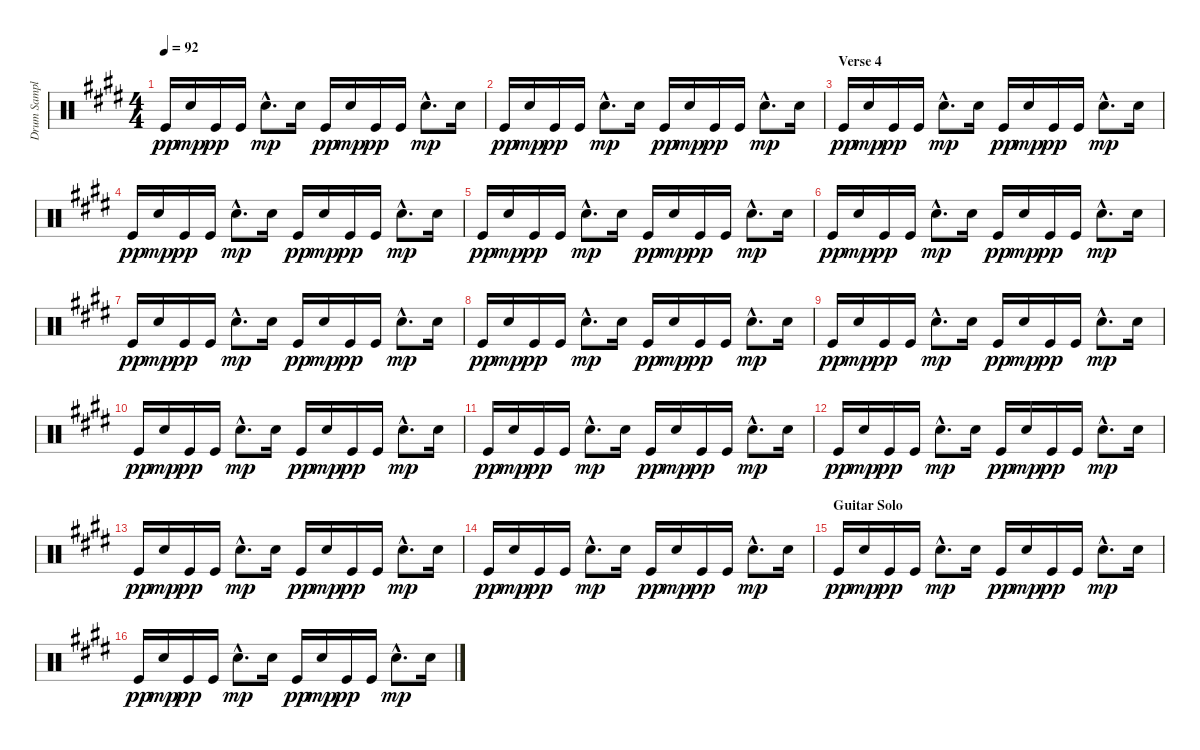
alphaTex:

\track ("Drum Sampler" "Drum Sampl") {instrument percussion}
\staff {score}
\articulation defaults
\ts (4 4)
\tempo 92
\clef neutral
\ks e "Kick (hit)".16{dy pp} "Electric Snare (hit)".16{dy mp} "Kick (hit)".16{dy pp} "Kick (hit)".16 "Electric Snare (hit)"{hac}.8{d dy mp} "Electric Snare (hit)".16 "Kick (hit)".16{dy pp} "Electric Snare (hit)".16{dy mp} "Kick (hit)".16{dy pp} "Kick (hit)".16 "Electric Snare (hit)"{hac}.8{d dy mp} "Electric Snare (hit)".16
|
"Kick (hit)".16{dy pp} "Electric Snare (hit)".16{dy mp} "Kick (hit)".16{dy pp} "Kick (hit)".16 "Electric Snare (hit)"{hac}.8{d dy mp} "Electric Snare (hit)".16 "Kick (hit)".16{dy pp} "Electric Snare (hit)".16{dy mp} "Kick (hit)".16{dy pp} "Kick (hit)".16 "Electric Snare (hit)"{hac}.8{d dy mp} "Electric Snare (hit)".16 |
\section ("" "Verse 4")
"Kick (hit)".16{dy pp} "Electric Snare (hit)".16{dy mp} "Kick (hit)".16{dy pp} "Kick (hit)".16 "Electric Snare (hit)"{hac}.8{d dy mp} "Electric Snare (hit)".16 "Kick (hit)".16{dy pp} "Electric Snare (hit)".16{dy mp} "Kick (hit)".16{dy pp} "Kick (hit)".16 "Electric Snare (hit)"{hac}.8{d dy mp} "Electric Snare (hit)".16 |
"Kick (hit)".16{dy pp} "Electric Snare (hit)".16{dy mp} "Kick (hit)".16{dy pp} "Kick (hit)".16 "Electric Snare (hit)"{hac}.8{d dy mp} "Electric Snare (hit)".16 "Kick (hit)".16{dy pp} "Electric Snare (hit)".16{dy mp} "Kick (hit)".16{dy pp} "Kick (hit)".16 "Electric Snare (hit)"{hac}.8{d dy mp} "Electric Snare (hit)".16 |
"Kick (hit)".16{dy pp} "Electric Snare (hit)".16{dy mp} "Kick (hit)".16{dy pp} "Kick (hit)".16 "Electric Snare (hit)"{hac}.8{d dy mp} "Electric Snare (hit)".16 "Kick (hit)".16{dy pp} "Electric Snare (hit)".16{dy mp} "Kick (hit)".16{dy pp} "Kick (hit)".16 "Electric Snare (hit)"{hac}.8{d dy mp} "Electric Snare (hit)".16 |
"Kick (hit)".16{dy pp} "Electric Snare (hit)".16{dy mp} "Kick (hit)".16{dy pp} "Kick (hit)".16 "Electric Snare (hit)"{hac}.8{d dy mp} "Electric Snare (hit)".16 "Kick (hit)".16{dy pp} "Electric Snare (hit)".16{dy mp} "Kick (hit)".16{dy pp} "Kick (hit)".16 "Electric Snare (hit)"{hac}.8{d dy mp} "Electric Snare (hit)".16 |
"Kick (hit)".16{dy pp} "Electric Snare (hit)".16{dy mp} "Kick (hit)".16{dy pp} "Kick (hit)".16 "Electric Snare (hit)"{hac}.8{d dy mp} "Electric Snare (hit)".16 "Kick (hit)".16{dy pp} "Electric Snare (hit)".16{dy mp} "Kick (hit)".16{dy pp} "Kick (hit)".16 "Electric Snare (hit)"{hac}.8{d dy mp} "Electric Snare (hit)".16 |
"Kick (hit)".16{dy pp} "Electric Snare (hit)".16{dy mp} "Kick (hit)".16{dy pp} "Kick (hit)".16 "Electric Snare (hit)"{hac}.8{d dy mp} "Electric Snare (hit)".16 "Kick (hit)".16{dy pp} "Electric Snare (hit)".16{dy mp} "Kick (hit)".16{dy pp} "Kick (hit)".16 "Electric Snare (hit)"{hac}.8{d dy mp} "Electric Snare (hit)".16 |
"Kick (hit)".16{dy pp} "Electric Snare (hit)".16{dy mp} "Kick (hit)".16{dy pp} "Kick (hit)".16 "Electric Snare (hit)"{hac}.8{d dy mp} "Electric Snare (hit)".16 "Kick (hit)".16{dy pp} "Electric Snare (hit)".16{dy mp} "Kick (hit)".16{dy pp} "Kick (hit)".16 "Electric Snare (hit)"{hac}.8{d dy mp} "Electric Snare (hit)".16 |
"Kick (hit)".16{dy pp} "Electric Snare (hit)".16{dy mp} "Kick (hit)".16{dy pp} "Kick (hit)".16 "Electric Snare (hit)"{hac}.8{d dy mp} "Electric Snare (hit)".16 "Kick (hit)".16{dy pp} "Electric Snare (hit)".16{dy mp} "Kick (hit)".16{dy pp} "Kick (hit)".16 "Electric Snare (hit)"{hac}.8{d dy mp} "Electric Snare (hit)".16 |
"Kick (hit)".16{dy pp} "Electric Snare (hit)".16{dy mp} "Kick (hit)".16{dy pp} "Kick (hit)".16 "Electric Snare (hit)"{hac}.8{d dy mp} "Electric Snare (hit)".16 "Kick (hit)".16{dy pp} "Electric Snare (hit)".16{dy mp} "Kick (hit)".16{dy pp} "Kick (hit)".16 "Electric Snare (hit)"{hac}.8{d dy mp} "Electric Snare (hit)".16 |
"Kick (hit)".16{dy pp} "Electric Snare (hit)".16{dy mp} "Kick (hit)".16{dy pp} "Kick (hit)".16 "Electric Snare (hit)"{hac}.8{d dy mp} "Electric Snare (hit)".16 "Kick (hit)".16{dy pp} "Electric Snare (hit)".16{dy mp} "Kick (hit)".16{dy pp} "Kick (hit)".16 "Electric Snare (hit)"{hac}.8{d dy mp} "Electric Snare (hit)".16 |
"Kick (hit)".16{dy pp} "Electric Snare (hit)".16{dy mp} "Kick (hit)".16{dy pp} "Kick (hit)".16 "Electric Snare (hit)"{hac}.8{d dy mp} "Electric Snare (hit)".16 "Kick (hit)".16{dy pp} "Electric Snare (hit)".16{dy mp} "Kick (hit)".16{dy pp} "Kick (hit)".16 "Electric Snare (hit)"{hac}.8{d dy mp} "Electric Snare (hit)".16 |
"Kick (hit)".16{dy pp} "Electric Snare (hit)".16{dy mp} "Kick (hit)".16{dy pp} "Kick (hit)".16 "Electric Snare (hit)"{hac}.8{d dy mp} "Electric Snare (hit)".16 "Kick (hit)".16{dy pp} "Electric Snare (hit)".16{dy mp} "Kick (hit)".16{dy pp} "Kick (hit)".16 "Electric Snare (hit)"{hac}.8{d dy mp} "Electric Snare (hit)".16 |
\section ("" "Guitar Solo")
"Kick (hit)".16{dy pp} "Electric Snare (hit)".16{dy mp} "Kick (hit)".16{dy pp} "Kick (hit)".16 "Electric Snare (hit)"{hac}.8{d dy mp} "Electric Snare (hit)".16 "Kick (hit)".16{dy pp} "Electric Snare (hit)".16{dy mp} "Kick (hit)".16{dy pp} "Kick (hit)".16 "Electric Snare (hit)"{hac}.8{d dy mp} "Electric Snare (hit)".16 |
"Kick (hit)".16{dy pp} "Electric Snare (hit)".16{dy mp} "Kick (hit)".16{dy pp} "Kick (hit)".16 "Electric Snare (hit)"{hac}.8{d dy mp} "Electric Snare (hit)".16 "Kick (hit)".16{dy pp} "Electric Snare (hit)".16{dy mp} "Kick (hit)".16{dy pp} "Kick (hit)".16 "Electric Snare (hit)"{hac}.8{d dy mp} "Electric Snare (hit)".16
